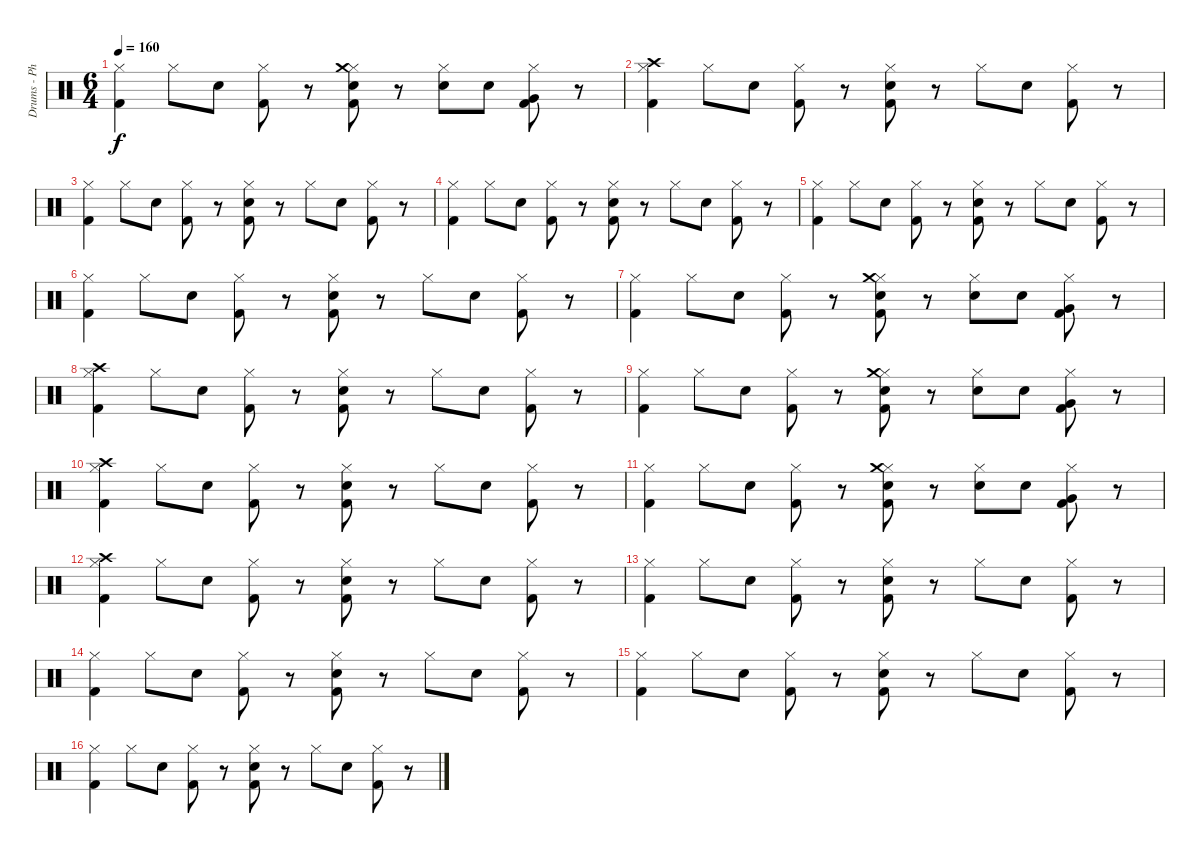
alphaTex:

\track ("Drums - Phil Selway" "Drums - Ph") {instrument percussion}
\staff {score}
\articulation defaults
\ts (6 4)
\tempo 160
\clef neutral
\ks c
("Hi-Hat (closed)" "Kick (hit) 2").4{dy f} "Hi-Hat (closed)".8 "Snare (hit) 2".8 ("Hi-Hat (closed)" "Kick (hit) 2").8 r.8 ("Hi-Hat (closed)" "Crash medium (hit)" "Snare (hit) 2" "Kick (hit) 2").8 r.8 ("Hi-Hat (closed)" "Snare (hit) 2").8 "Snare (hit) 2".8 ("Hi-Hat (closed)" "Very Low Tom (hit)" "Kick (hit) 2").8 r.8 |
("Hi-Hat (closed)" "Crash high (hit)" "Kick (hit) 2").4 "Hi-Hat (closed)".8 "Snare (hit) 2".8 ("Hi-Hat (closed)" "Kick (hit) 2").8 r.8 ("Hi-Hat (closed)" "Snare (hit) 2" "Kick (hit) 2").8 r.8 "Hi-Hat (closed)".8 "Snare (hit) 2".8 ("Hi-Hat (closed)" "Kick (hit) 2").8 r.8 |
("Hi-Hat (closed)" "Kick (hit) 2").4 "Hi-Hat (closed)".8 "Snare (hit) 2".8 ("Hi-Hat (closed)" "Kick (hit) 2").8 r.8 ("Hi-Hat (closed)" "Snare (hit) 2" "Kick (hit) 2").8 r.8 "Hi-Hat (closed)".8 "Snare (hit) 2".8 ("Hi-Hat (closed)" "Kick (hit) 2").8 r.8 |
("Hi-Hat (closed)" "Kick (hit) 2").4 "Hi-Hat (closed)".8 "Snare (hit) 2".8 ("Hi-Hat (closed)" "Kick (hit) 2").8 r.8 ("Hi-Hat (closed)" "Snare (hit) 2" "Kick (hit) 2").8 r.8 "Hi-Hat (closed)".8 "Snare (hit) 2".8 ("Hi-Hat (closed)" "Kick (hit) 2").8 r.8 |
("Hi-Hat (closed)" "Kick (hit) 2").4 "Hi-Hat (closed)".8 "Snare (hit) 2".8 ("Hi-Hat (closed)" "Kick (hit) 2").8 r.8 ("Hi-Hat (closed)" "Snare (hit) 2" "Kick (hit) 2").8 r.8 "Hi-Hat (closed)".8 "Snare (hit) 2".8 ("Hi-Hat (closed)" "Kick (hit) 2").8 r.8 |
("Hi-Hat (closed)" "Kick (hit) 2").4 "Hi-Hat (closed)".8 "Snare (hit) 2".8 ("Hi-Hat (closed)" "Kick (hit) 2").8 r.8 ("Hi-Hat (closed)" "Snare (hit) 2" "Kick (hit) 2").8 r.8 "Hi-Hat (closed)".8 "Snare (hit) 2".8 ("Hi-Hat (closed)" "Kick (hit) 2").8 r.8 |
("Hi-Hat (closed)" "Kick (hit) 2").4 "Hi-Hat (closed)".8 "Snare (hit) 2".8 ("Hi-Hat (closed)" "Kick (hit) 2").8 r.8 ("Hi-Hat (closed)" "Crash medium (hit)" "Snare (hit) 2" "Kick (hit) 2").8 r.8 ("Hi-Hat (closed)" "Snare (hit) 2").8 "Snare (hit) 2".8 ("Hi-Hat (closed)" "Very Low Tom (hit)" "Kick (hit) 2").8 r.8 |
("Hi-Hat (closed)" "Crash high (hit)" "Kick (hit) 2").4 "Hi-Hat (closed)".8 "Snare (hit) 2".8 ("Hi-Hat (closed)" "Kick (hit) 2").8 r.8 ("Hi-Hat (closed)" "Snare (hit) 2" "Kick (hit) 2").8 r.8 "Hi-Hat (closed)".8 "Snare (hit) 2".8 ("Hi-Hat (closed)" "Kick (hit) 2").8 r.8 |
("Hi-Hat (closed)" "Kick (hit) 2").4 "Hi-Hat (closed)".8 "Snare (hit) 2".8 ("Hi-Hat (closed)" "Kick (hit) 2").8 r.8 ("Hi-Hat (closed)" "Crash medium (hit)" "Snare (hit) 2" "Kick (hit) 2").8 r.8 ("Hi-Hat (closed)" "Snare (hit) 2").8 "Snare (hit) 2".8 ("Hi-Hat (closed)" "Very Low Tom (hit)" "Kick (hit) 2").8 r.8 |
("Hi-Hat (closed)" "Crash high (hit)" "Kick (hit) 2").4 "Hi-Hat (closed)".8 "Snare (hit) 2".8 ("Hi-Hat (closed)" "Kick (hit) 2").8 r.8 ("Hi-Hat (closed)" "Snare (hit) 2" "Kick (hit) 2").8 r.8 "Hi-Hat (closed)".8 "Snare (hit) 2".8 ("Hi-Hat (closed)" "Kick (hit) 2").8 r.8 |
("Hi-Hat (closed)" "Kick (hit) 2").4 "Hi-Hat (closed)".8 "Snare (hit) 2".8 ("Hi-Hat (closed)" "Kick (hit) 2").8 r.8 ("Hi-Hat (closed)" "Crash medium (hit)" "Snare (hit) 2" "Kick (hit) 2").8 r.8 ("Hi-Hat (closed)" "Snare (hit) 2").8 "Snare (hit) 2".8 ("Hi-Hat (closed)" "Very Low Tom (hit)" "Kick (hit) 2").8 r.8 |
("Hi-Hat (closed)" "Crash high (hit)" "Kick (hit) 2").4 "Hi-Hat (closed)".8 "Snare (hit) 2".8 ("Hi-Hat (closed)" "Kick (hit) 2").8 r.8 ("Hi-Hat (closed)" "Snare (hit) 2" "Kick (hit) 2").8 r.8 "Hi-Hat (closed)".8 "Snare (hit) 2".8 ("Hi-Hat (closed)" "Kick (hit) 2").8 r.8 |
("Hi-Hat (closed)" "Kick (hit) 2").4 "Hi-Hat (closed)".8 "Snare (hit) 2".8 ("Hi-Hat (closed)" "Kick (hit) 2").8 r.8 ("Hi-Hat (closed)" "Snare (hit) 2" "Kick (hit) 2").8 r.8 "Hi-Hat (closed)".8 "Snare (hit) 2".8 ("Hi-Hat (closed)" "Kick (hit) 2").8 r.8 |
("Hi-Hat (closed)" "Kick (hit) 2").4 "Hi-Hat (closed)".8 "Snare (hit) 2".8 ("Hi-Hat (closed)" "Kick (hit) 2").8 r.8 ("Hi-Hat (closed)" "Snare (hit) 2" "Kick (hit) 2").8 r.8 "Hi-Hat (closed)".8 "Snare (hit) 2".8 ("Hi-Hat (closed)" "Kick (hit) 2").8 r.8 |
("Hi-Hat (closed)" "Kick (hit) 2").4 "Hi-Hat (closed)".8 "Snare (hit) 2".8 ("Hi-Hat (closed)" "Kick (hit) 2").8 r.8 ("Hi-Hat (closed)" "Snare (hit) 2" "Kick (hit) 2").8 r.8 "Hi-Hat (closed)".8 "Snare (hit) 2".8 ("Hi-Hat (closed)" "Kick (hit) 2").8 r.8 |
("Hi-Hat (closed)" "Kick (hit) 2").4 "Hi-Hat (closed)".8 "Snare (hit) 2".8 ("Hi-Hat (closed)" "Kick (hit) 2").8 r.8 ("Hi-Hat (closed)" "Snare (hit) 2" "Kick (hit) 2").8 r.8 "Hi-Hat (closed)".8 "Snare (hit) 2".8 ("Hi-Hat (closed)" "Kick (hit) 2").8 r.8
